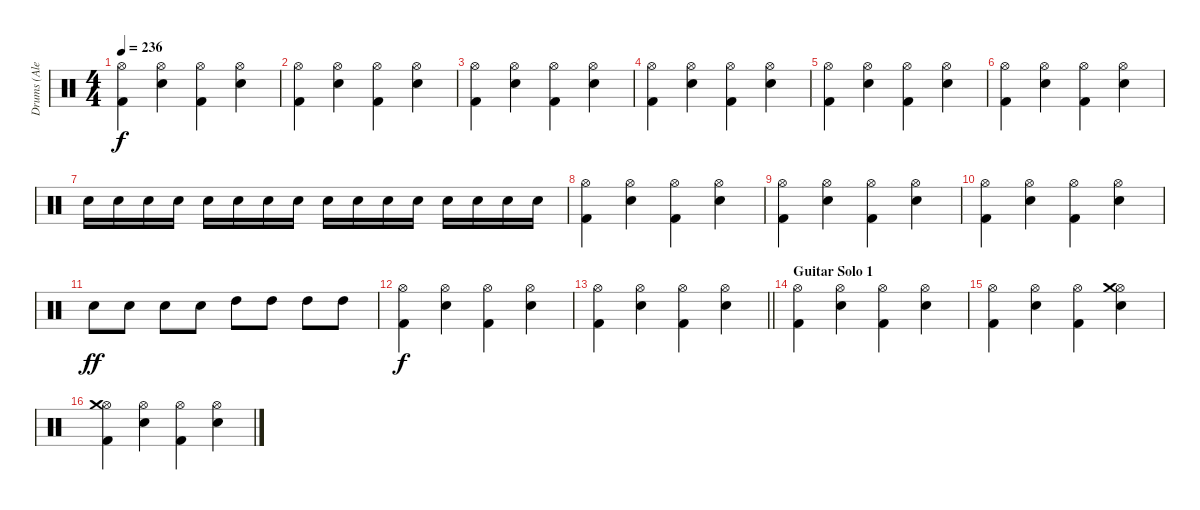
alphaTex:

\track ("Drums (Alex Van Halen)" "Drums (Ale") {instrument percussion}
\staff {score}
\articulation defaults
\ts (4 4)
\tempo 236
\clef neutral
\ks c
("Hi-Hat (open)" "Kick (hit) 2").4{dy f} ("Hi-Hat (open)" "Snare (hit) 2").4 ("Hi-Hat (open)" "Kick (hit) 2").4 ("Hi-Hat (open)" "Snare (hit) 2").4 |
("Hi-Hat (open)" "Kick (hit) 2").4 ("Hi-Hat (open)" "Snare (hit) 2").4 ("Hi-Hat (open)" "Kick (hit) 2").4 ("Hi-Hat (open)" "Snare (hit) 2").4 |
("Hi-Hat (open)" "Kick (hit) 2").4 ("Hi-Hat (open)" "Snare (hit) 2").4 ("Hi-Hat (open)" "Kick (hit) 2").4 ("Hi-Hat (open)" "Snare (hit) 2").4 |
("Hi-Hat (open)" "Kick (hit) 2").4 ("Hi-Hat (open)" "Snare (hit) 2").4 ("Hi-Hat (open)" "Kick (hit) 2").4 ("Hi-Hat (open)" "Snare (hit) 2").4 |
("Hi-Hat (open)" "Kick (hit) 2").4 ("Hi-Hat (open)" "Snare (hit) 2").4 ("Hi-Hat (open)" "Kick (hit) 2").4 ("Hi-Hat (open)" "Snare (hit) 2").4 |
("Hi-Hat (open)" "Kick (hit) 2").4 ("Hi-Hat (open)" "Snare (hit) 2").4 ("Hi-Hat (open)" "Kick (hit) 2").4 ("Hi-Hat (open)" "Snare (hit) 2").4 |
"Snare (hit) 2".16 "Snare (hit) 2".16 "Snare (hit) 2".16 "Snare (hit) 2".16 "Snare (hit) 2".16 "Snare (hit) 2".16 "Snare (hit) 2".16 "Snare (hit) 2".16 "Snare (hit) 2".16 "Snare (hit) 2".16 "Snare (hit) 2".16 "Snare (hit) 2".16 "Snare (hit) 2".16 "Snare (hit) 2".16 "Snare (hit) 2".16 "Snare (hit) 2".16 |
("Hi-Hat (open)" "Kick (hit) 2").4 ("Hi-Hat (open)" "Snare (hit) 2").4 ("Hi-Hat (open)" "Kick (hit) 2").4 ("Hi-Hat (open)" "Snare (hit) 2").4 |
("Hi-Hat (open)" "Kick (hit) 2").4 ("Hi-Hat (open)" "Snare (hit) 2").4 ("Hi-Hat (open)" "Kick (hit) 2").4 ("Hi-Hat (open)" "Snare (hit) 2").4 |
("Hi-Hat (open)" "Kick (hit) 2").4 ("Hi-Hat (open)" "Snare (hit) 2").4 ("Hi-Hat (open)" "Kick (hit) 2").4 ("Hi-Hat (open)" "Snare (hit) 2").4 |
"Electric Snare (hit)".8{dy ff} "Electric Snare (hit)".8 "Electric Snare (hit)".8 "Electric Snare (hit)".8 "High Tom (hit)".8 "High Tom (hit)".8 "High Tom (hit)".8 "High Tom (hit)".8 |
("Hi-Hat (open)" "Kick (hit) 2").4{dy f} ("Hi-Hat (open)" "Snare (hit) 2").4 ("Hi-Hat (open)" "Kick (hit) 2").4 ("Hi-Hat (open)" "Snare (hit) 2").4 |
\barLineRight lightlight
("Hi-Hat (open)" "Kick (hit) 2").4 ("Hi-Hat (open)" "Snare (hit) 2").4 ("Hi-Hat (open)" "Kick (hit) 2").4 ("Hi-Hat (open)" "Snare (hit) 2").4 |
\section ("" "Guitar Solo 1")
("Hi-Hat (open)" "Kick (hit) 2").4 ("Hi-Hat (open)" "Snare (hit) 2").4 ("Hi-Hat (open)" "Kick (hit) 2").4 ("Hi-Hat (open)" "Snare (hit) 2").4 |
("Hi-Hat (open)" "Kick (hit) 2").4 ("Hi-Hat (open)" "Snare (hit) 2").4 ("Hi-Hat (open)" "Kick (hit) 2").4 ("Hi-Hat (open)" "Crash medium (hit)" "Snare (hit) 2").4 |
("Hi-Hat (open)" "Crash medium (hit)" "Kick (hit) 2").4 ("Hi-Hat (open)" "Snare (hit) 2").4 ("Hi-Hat (open)" "Kick (hit) 2").4 ("Hi-Hat (open)" "Snare (hit) 2").4
